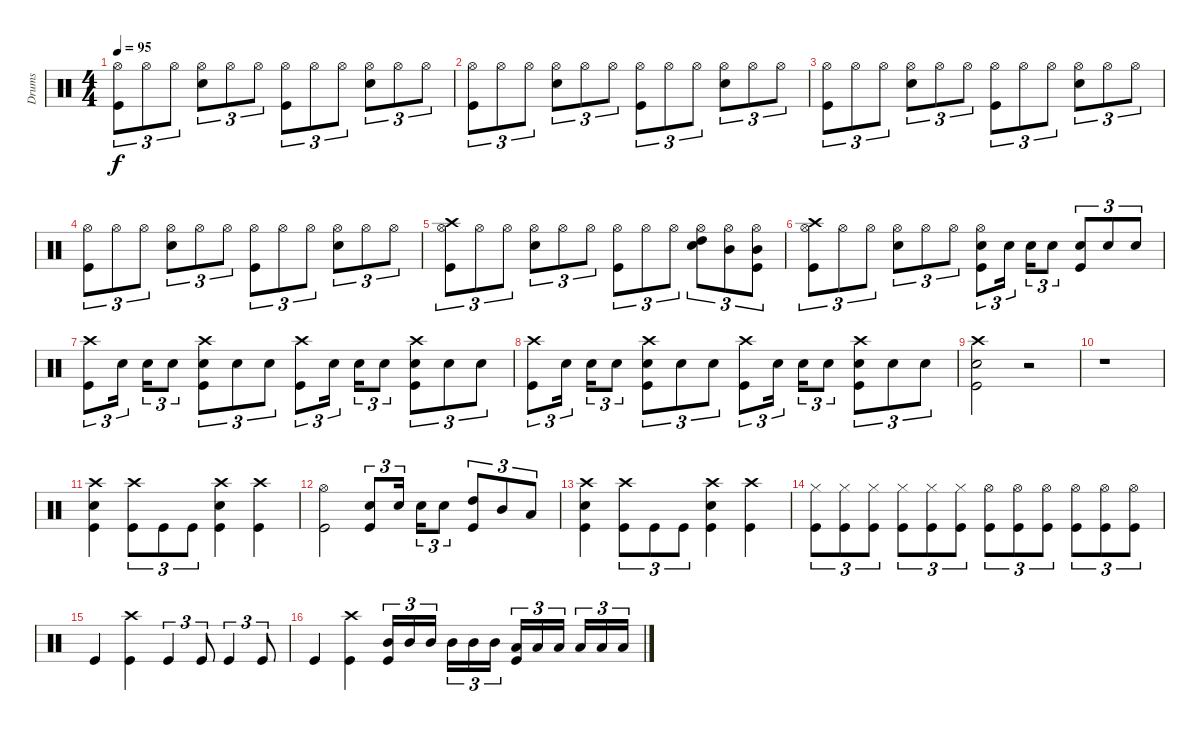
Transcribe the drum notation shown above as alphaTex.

\track ("Drums" "Drums") {instrument percussion}
\staff {score}
\articulation defaults
\ts (4 4)
\tempo 95
\clef neutral
\ks c
("Hi-Hat (open)" "Kick (hit)").8{tu (3 2) dy f} "Hi-Hat (open)".8{tu (3 2)} "Hi-Hat (open)".8{tu (3 2)} ("Hi-Hat (open)" "Electric Snare (hit)").8{tu (3 2)} "Hi-Hat (open)".8{tu (3 2)} "Hi-Hat (open)".8{tu (3 2)} ("Hi-Hat (open)" "Kick (hit)").8{tu (3 2)} "Hi-Hat (open)".8{tu (3 2)} "Hi-Hat (open)".8{tu (3 2)} ("Hi-Hat (open)" "Electric Snare (hit)").8{tu (3 2)} "Hi-Hat (open)".8{tu (3 2)} "Hi-Hat (open)".8{tu (3 2)} |
("Hi-Hat (open)" "Kick (hit)").8{tu (3 2)} "Hi-Hat (open)".8{tu (3 2)} "Hi-Hat (open)".8{tu (3 2)} ("Hi-Hat (open)" "Electric Snare (hit)").8{tu (3 2)} "Hi-Hat (open)".8{tu (3 2)} "Hi-Hat (open)".8{tu (3 2)} ("Hi-Hat (open)" "Kick (hit)").8{tu (3 2)} "Hi-Hat (open)".8{tu (3 2)} "Hi-Hat (open)".8{tu (3 2)} ("Hi-Hat (open)" "Electric Snare (hit)").8{tu (3 2)} "Hi-Hat (open)".8{tu (3 2)} "Hi-Hat (open)".8{tu (3 2)} |
("Hi-Hat (open)" "Kick (hit)").8{tu (3 2)} "Hi-Hat (open)".8{tu (3 2)} "Hi-Hat (open)".8{tu (3 2)} ("Hi-Hat (open)" "Electric Snare (hit)").8{tu (3 2)} "Hi-Hat (open)".8{tu (3 2)} "Hi-Hat (open)".8{tu (3 2)} ("Hi-Hat (open)" "Kick (hit)").8{tu (3 2)} "Hi-Hat (open)".8{tu (3 2)} "Hi-Hat (open)".8{tu (3 2)} ("Hi-Hat (open)" "Electric Snare (hit)").8{tu (3 2)} "Hi-Hat (open)".8{tu (3 2)} "Hi-Hat (open)".8{tu (3 2)} |
("Hi-Hat (open)" "Kick (hit)").8{tu (3 2)} "Hi-Hat (open)".8{tu (3 2)} "Hi-Hat (open)".8{tu (3 2)} ("Hi-Hat (open)" "Electric Snare (hit)").8{tu (3 2)} "Hi-Hat (open)".8{tu (3 2)} "Hi-Hat (open)".8{tu (3 2)} ("Hi-Hat (open)" "Kick (hit)").8{tu (3 2)} "Hi-Hat (open)".8{tu (3 2)} "Hi-Hat (open)".8{tu (3 2)} ("Hi-Hat (open)" "Electric Snare (hit)").8{tu (3 2)} "Hi-Hat (open)".8{tu (3 2)} "Hi-Hat (open)".8{tu (3 2)} |
("Crash high (hit)" "Hi-Hat (open)" "Kick (hit)").8{tu (3 2)} "Hi-Hat (open)".8{tu (3 2)} "Hi-Hat (open)".8{tu (3 2)} ("Hi-Hat (open)" "Electric Snare (hit)").8{tu (3 2)} "Hi-Hat (open)".8{tu (3 2)} "Hi-Hat (open)".8{tu (3 2)} ("Hi-Hat (open)" "Kick (hit)").8{tu (3 2)} "Hi-Hat (open)".8{tu (3 2)} "Hi-Hat (open)".8{tu (3 2)} ("Hi-Hat (open)" "High Tom (hit)" "Electric Snare (hit)").8{tu (3 2)} ("Hi-Hat (open)" "Mid Tom (hit)").8{tu (3 2)} ("Hi-Hat (open)" "Mid Tom (hit)" "Kick (hit)").8{tu (3 2)} |
("Crash high (hit)" "Hi-Hat (open)" "Kick (hit)").8{tu (3 2)} "Hi-Hat (open)".8{tu (3 2)} "Hi-Hat (open)".8{tu (3 2)} ("Hi-Hat (open)" "Electric Snare (hit)").8{tu (3 2)} "Hi-Hat (open)".8{tu (3 2)} "Hi-Hat (open)".8{tu (3 2)} ("Hi-Hat (open)" "Electric Snare (hit)" "Kick (hit)").8{tu (3 2)} "Electric Snare (hit)".16{tu (3 2)} "Electric Snare (hit)".16{tu (3 2)} "Electric Snare (hit)".8{tu (3 2)} ("Electric Snare (hit)" "Kick (hit)").8{tu (3 2)} "Electric Snare (hit)".8{tu (3 2)} "Electric Snare (hit)".8{tu (3 2)} |
("Crash high (hit)" "Kick (hit)").8{tu (3 2)} "Electric Snare (hit)".16{tu (3 2)} "Electric Snare (hit)".16{tu (3 2)} "Electric Snare (hit)".8{tu (3 2)} ("Crash high (hit)" "Electric Snare (hit)" "Kick (hit)").8{tu (3 2)} "Electric Snare (hit)".8{tu (3 2)} "Electric Snare (hit)".8{tu (3 2)} ("Crash high (hit)" "Kick (hit)").8{tu (3 2)} "Electric Snare (hit)".16{tu (3 2)} "Electric Snare (hit)".16{tu (3 2)} "Electric Snare (hit)".8{tu (3 2)} ("Crash high (hit)" "Electric Snare (hit)" "Kick (hit)").8{tu (3 2)} "Electric Snare (hit)".8{tu (3 2)} "Electric Snare (hit)".8{tu (3 2)} |
("Crash high (hit)" "Kick (hit)").8{tu (3 2)} "Electric Snare (hit)".16{tu (3 2)} "Electric Snare (hit)".16{tu (3 2)} "Electric Snare (hit)".8{tu (3 2)} ("Crash high (hit)" "Electric Snare (hit)" "Kick (hit)").8{tu (3 2)} "Electric Snare (hit)".8{tu (3 2)} "Electric Snare (hit)".8{tu (3 2)} ("Crash high (hit)" "Kick (hit)").8{tu (3 2)} "Electric Snare (hit)".16{tu (3 2)} "Electric Snare (hit)".16{tu (3 2)} "Electric Snare (hit)".8{tu (3 2)} ("Crash high (hit)" "Electric Snare (hit)" "Kick (hit)").8{tu (3 2)} "Electric Snare (hit)".8{tu (3 2)} "Electric Snare (hit)".8{tu (3 2)} |
("Crash high (hit)" "Electric Snare (hit)" "Kick (hit)").2 r.2 |
r.1 |
("Crash high (hit)" "Electric Snare (hit)" "Kick (hit)").4 ("Crash high (hit)" "Kick (hit)").8{tu (3 2)} "Kick (hit)".8{tu (3 2)} "Kick (hit)".8{tu (3 2)} ("Crash high (hit)" "Electric Snare (hit)" "Kick (hit)").4 ("Crash high (hit)" "Kick (hit)").4 |
("Hi-Hat (open)" "Kick (hit)").2 ("Electric Snare (hit)" "Kick (hit)").8{tu (3 2)} "Electric Snare (hit)".16{tu (3 2)} "Electric Snare (hit)".16{tu (3 2)} "Electric Snare (hit)".8{tu (3 2)} ("High Tom (hit)" "Kick (hit)").8{tu (3 2)} "Mid Tom (hit)".8{tu (3 2)} "Low Tom (hit)".8{tu (3 2)} |
("Crash high (hit)" "Electric Snare (hit)" "Kick (hit)").4 ("Crash high (hit)" "Kick (hit)").8{tu (3 2)} "Kick (hit)".8{tu (3 2)} "Kick (hit)".8{tu (3 2)} ("Crash high (hit)" "Electric Snare (hit)" "Kick (hit)").4 ("Crash high (hit)" "Kick (hit)").4 |
("Hi-Hat (closed)" "Kick (hit)").8{tu (3 2)} ("Hi-Hat (closed)" "Kick (hit)").8{tu (3 2)} ("Hi-Hat (closed)" "Kick (hit)").8{tu (3 2)} ("Hi-Hat (closed)" "Kick (hit)").8{tu (3 2)} ("Hi-Hat (closed)" "Kick (hit)").8{tu (3 2)} ("Hi-Hat (closed)" "Kick (hit)").8{tu (3 2)} ("Hi-Hat (open)" "Kick (hit)").8{tu (3 2)} ("Hi-Hat (open)" "Kick (hit)").8{tu (3 2)} ("Hi-Hat (open)" "Kick (hit)").8{tu (3 2)} ("Hi-Hat (open)" "Kick (hit)").8{tu (3 2)} ("Hi-Hat (open)" "Kick (hit)").8{tu (3 2)} ("Hi-Hat (open)" "Kick (hit)").8{tu (3 2)} |
"Kick (hit)".4 ("Crash high (hit)" "Kick (hit)").4 "Kick (hit)".4{tu (3 2)} "Kick (hit)".8{tu (3 2)} "Kick (hit)".4{tu (3 2)} "Kick (hit)".8{tu (3 2)} |
"Kick (hit)".4 ("Crash high (hit)" "Kick (hit)").4 ("Mid Tom (hit)" "Kick (hit)").16{tu (3 2)} "Mid Tom (hit)".16{tu (3 2)} "Mid Tom (hit)".16{tu (3 2)} "Mid Tom (hit)".16{tu (3 2)} "Mid Tom (hit)".16{tu (3 2)} "Mid Tom (hit)".16{tu (3 2)} ("Low Tom (hit)" "Kick (hit)").16{tu (3 2)} "Low Tom (hit)".16{tu (3 2)} "Low Tom (hit)".16{tu (3 2)} "Low Tom (hit)".16{tu (3 2)} "Low Tom (hit)".16{tu (3 2)} "Low Tom (hit)".16{tu (3 2)}
